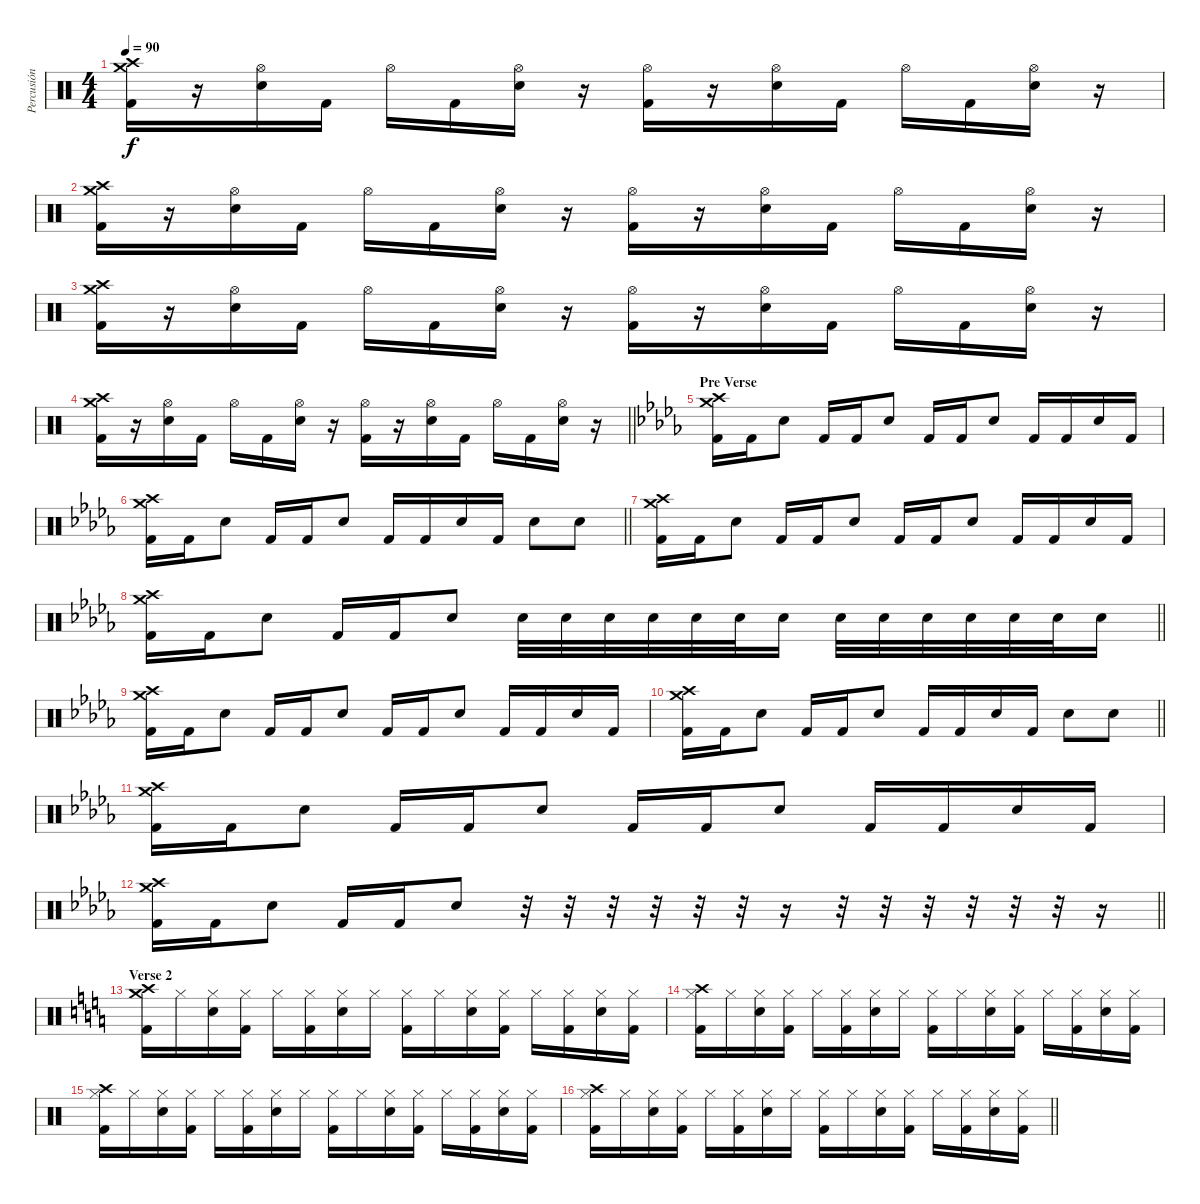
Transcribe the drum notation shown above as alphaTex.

\track ("Percusión" "Percusión") {instrument percussion}
\staff {score}
\articulation defaults
\ts (4 4)
\tempo 90
\clef neutral
\ks c
("Crash high (hit)" "Crash medium (hit)" "Kick (hit) 2").16{dy f} r.16 ("Hi-Hat (open)" "Electric Snare (hit)").16 "Kick (hit) 2".16 "Hi-Hat (open)".16 "Kick (hit) 2".16 ("Hi-Hat (open)" "Electric Snare (hit)").16 r.16 ("Hi-Hat (open)" "Kick (hit) 2").16 r.16 ("Hi-Hat (open)" "Electric Snare (hit)").16 "Kick (hit) 2".16 "Hi-Hat (open)".16 "Kick (hit) 2".16 ("Hi-Hat (open)" "Electric Snare (hit)").16 r.16 |
("Crash high (hit)" "Crash medium (hit)" "Kick (hit) 2").16 r.16 ("Hi-Hat (open)" "Electric Snare (hit)").16 "Kick (hit) 2".16 "Hi-Hat (open)".16 "Kick (hit) 2".16 ("Hi-Hat (open)" "Electric Snare (hit)").16 r.16 ("Hi-Hat (open)" "Kick (hit) 2").16 r.16 ("Hi-Hat (open)" "Electric Snare (hit)").16 "Kick (hit) 2".16 "Hi-Hat (open)".16 "Kick (hit) 2".16 ("Hi-Hat (open)" "Electric Snare (hit)").16 r.16 |
("Crash high (hit)" "Crash medium (hit)" "Kick (hit) 2").16 r.16 ("Hi-Hat (open)" "Electric Snare (hit)").16 "Kick (hit) 2".16 "Hi-Hat (open)".16 "Kick (hit) 2".16 ("Hi-Hat (open)" "Electric Snare (hit)").16 r.16 ("Hi-Hat (open)" "Kick (hit) 2").16 r.16 ("Hi-Hat (open)" "Electric Snare (hit)").16 "Kick (hit) 2".16 "Hi-Hat (open)".16 "Kick (hit) 2".16 ("Hi-Hat (open)" "Electric Snare (hit)").16 r.16 |
\barLineRight lightlight
("Crash high (hit)" "Crash medium (hit)" "Kick (hit) 2").16 r.16 ("Hi-Hat (open)" "Electric Snare (hit)").16 "Kick (hit) 2".16 "Hi-Hat (open)".16 "Kick (hit) 2".16 ("Hi-Hat (open)" "Electric Snare (hit)").16 r.16 ("Hi-Hat (open)" "Kick (hit) 2").16 r.16 ("Hi-Hat (open)" "Electric Snare (hit)").16 "Kick (hit) 2".16 "Hi-Hat (open)".16 "Kick (hit) 2".16 ("Hi-Hat (open)" "Electric Snare (hit)").16 r.16 |
\section ("" "Pre Verse")
\ks db
("Crash high (hit)" "Crash medium (hit)" "Kick (hit) 2").16 "Kick (hit) 2".16 "Snare (hit) 2".8 "Kick (hit) 2".16 "Kick (hit) 2".16 "Snare (hit) 2".8 "Kick (hit) 2".16 "Kick (hit) 2".16 "Snare (hit) 2".8 "Kick (hit) 2".16 "Kick (hit) 2".16 "Snare (hit) 2".16 "Kick (hit) 2".16 |
\barLineRight lightlight
("Crash high (hit)" "Crash medium (hit)" "Kick (hit) 2").16 "Kick (hit) 2".16 "Snare (hit) 2".8 "Kick (hit) 2".16 "Kick (hit) 2".16 "Snare (hit) 2".8 "Kick (hit) 2".16 "Kick (hit) 2".16 "Snare (hit) 2".16 "Kick (hit) 2".16 "Snare (hit) 2".8 "Snare (hit) 2".8 |
("Crash high (hit)" "Crash medium (hit)" "Kick (hit) 2").16 "Kick (hit) 2".16 "Snare (hit) 2".8 "Kick (hit) 2".16 "Kick (hit) 2".16 "Snare (hit) 2".8 "Kick (hit) 2".16 "Kick (hit) 2".16 "Snare (hit) 2".8 "Kick (hit) 2".16 "Kick (hit) 2".16 "Snare (hit) 2".16 "Kick (hit) 2".16 |
\barLineRight lightlight
("Crash high (hit)" "Crash medium (hit)" "Kick (hit) 2").16 "Kick (hit) 2".16 "Snare (hit) 2".8 "Kick (hit) 2".16 "Kick (hit) 2".16 "Snare (hit) 2".8 "Snare (hit) 2".32 "Snare (hit) 2".32 "Snare (hit) 2".32 "Snare (hit) 2".32 "Snare (hit) 2".32 "Snare (hit) 2".32 "Snare (hit) 2".16 "Snare (hit) 2".32 "Snare (hit) 2".32 "Snare (hit) 2".32 "Snare (hit) 2".32 "Snare (hit) 2".32 "Snare (hit) 2".32 "Snare (hit) 2".16 |
("Crash high (hit)" "Crash medium (hit)" "Kick (hit) 2").16 "Kick (hit) 2".16 "Snare (hit) 2".8 "Kick (hit) 2".16 "Kick (hit) 2".16 "Snare (hit) 2".8 "Kick (hit) 2".16 "Kick (hit) 2".16 "Snare (hit) 2".8 "Kick (hit) 2".16 "Kick (hit) 2".16 "Snare (hit) 2".16 "Kick (hit) 2".16 |
\barLineRight lightlight
("Crash high (hit)" "Crash medium (hit)" "Kick (hit) 2").16 "Kick (hit) 2".16 "Snare (hit) 2".8 "Kick (hit) 2".16 "Kick (hit) 2".16 "Snare (hit) 2".8 "Kick (hit) 2".16 "Kick (hit) 2".16 "Snare (hit) 2".16 "Kick (hit) 2".16 "Snare (hit) 2".8 "Snare (hit) 2".8 |
("Crash high (hit)" "Crash medium (hit)" "Kick (hit) 2").16 "Kick (hit) 2".16 "Snare (hit) 2".8 "Kick (hit) 2".16 "Kick (hit) 2".16 "Snare (hit) 2".8 "Kick (hit) 2".16 "Kick (hit) 2".16 "Snare (hit) 2".8 "Kick (hit) 2".16 "Kick (hit) 2".16 "Snare (hit) 2".16 "Kick (hit) 2".16 |
\barLineRight lightlight
("Crash high (hit)" "Crash medium (hit)" "Kick (hit) 2").16 "Kick (hit) 2".16 "Snare (hit) 2".8 "Kick (hit) 2".16 "Kick (hit) 2".16 "Snare (hit) 2".8 r.32 r.32 r.32 r.32 r.32 r.32 r.16 r.32 r.32 r.32 r.32 r.32 r.32 r.16 |
\section ("" "Verse 2")
\ks c
("Crash high (hit)" "Crash medium (hit)" "Kick (hit) 2").16 "Hi-Hat (closed)".16 ("Hi-Hat (closed)" "Electric Snare (hit)").16 ("Hi-Hat (closed)" "Kick (hit) 2").16 "Hi-Hat (closed)".16 ("Hi-Hat (closed)" "Kick (hit) 2").16 ("Hi-Hat (closed)" "Electric Snare (hit)").16 "Hi-Hat (closed)".16 ("Hi-Hat (closed)" "Kick (hit) 2").16 "Hi-Hat (closed)".16 ("Hi-Hat (closed)" "Electric Snare (hit)").16 ("Hi-Hat (closed)" "Kick (hit) 2").16 "Hi-Hat (closed)".16 ("Hi-Hat (closed)" "Kick (hit) 2").16 ("Hi-Hat (closed)" "Electric Snare (hit)").16 ("Hi-Hat (closed)" "Kick (hit) 2").16 |
("Crash high (hit)" "Hi-Hat (closed)" "Kick (hit) 2").16 "Hi-Hat (closed)".16 ("Hi-Hat (closed)" "Electric Snare (hit)").16 ("Hi-Hat (closed)" "Kick (hit) 2").16 "Hi-Hat (closed)".16 ("Hi-Hat (closed)" "Kick (hit) 2").16 ("Hi-Hat (closed)" "Electric Snare (hit)").16 "Hi-Hat (closed)".16 ("Hi-Hat (closed)" "Kick (hit) 2").16 "Hi-Hat (closed)".16 ("Hi-Hat (closed)" "Electric Snare (hit)").16 ("Hi-Hat (closed)" "Kick (hit) 2").16 "Hi-Hat (closed)".16 ("Hi-Hat (closed)" "Kick (hit) 2").16 ("Hi-Hat (closed)" "Electric Snare (hit)").16 ("Hi-Hat (closed)" "Kick (hit) 2").16 |
("Crash high (hit)" "Hi-Hat (closed)" "Kick (hit) 2").16 "Hi-Hat (closed)".16 ("Hi-Hat (closed)" "Electric Snare (hit)").16 ("Hi-Hat (closed)" "Kick (hit) 2").16 "Hi-Hat (closed)".16 ("Hi-Hat (closed)" "Kick (hit) 2").16 ("Hi-Hat (closed)" "Electric Snare (hit)").16 "Hi-Hat (closed)".16 ("Hi-Hat (closed)" "Kick (hit) 2").16 "Hi-Hat (closed)".16 ("Hi-Hat (closed)" "Electric Snare (hit)").16 ("Hi-Hat (closed)" "Kick (hit) 2").16 "Hi-Hat (closed)".16 ("Hi-Hat (closed)" "Kick (hit) 2").16 ("Hi-Hat (closed)" "Electric Snare (hit)").16 ("Hi-Hat (closed)" "Kick (hit) 2").16 |
\barLineRight lightlight
("Crash high (hit)" "Hi-Hat (closed)" "Kick (hit) 2").16 "Hi-Hat (closed)".16 ("Hi-Hat (closed)" "Electric Snare (hit)").16 ("Hi-Hat (closed)" "Kick (hit) 2").16 "Hi-Hat (closed)".16 ("Hi-Hat (closed)" "Kick (hit) 2").16 ("Hi-Hat (closed)" "Electric Snare (hit)").16 "Hi-Hat (closed)".16 ("Hi-Hat (closed)" "Kick (hit) 2").16 "Hi-Hat (closed)".16 ("Hi-Hat (closed)" "Electric Snare (hit)").16 ("Hi-Hat (closed)" "Kick (hit) 2").16 "Hi-Hat (closed)".16 ("Hi-Hat (closed)" "Kick (hit) 2").16 ("Hi-Hat (closed)" "Electric Snare (hit)").16 ("Hi-Hat (closed)" "Kick (hit) 2").16
